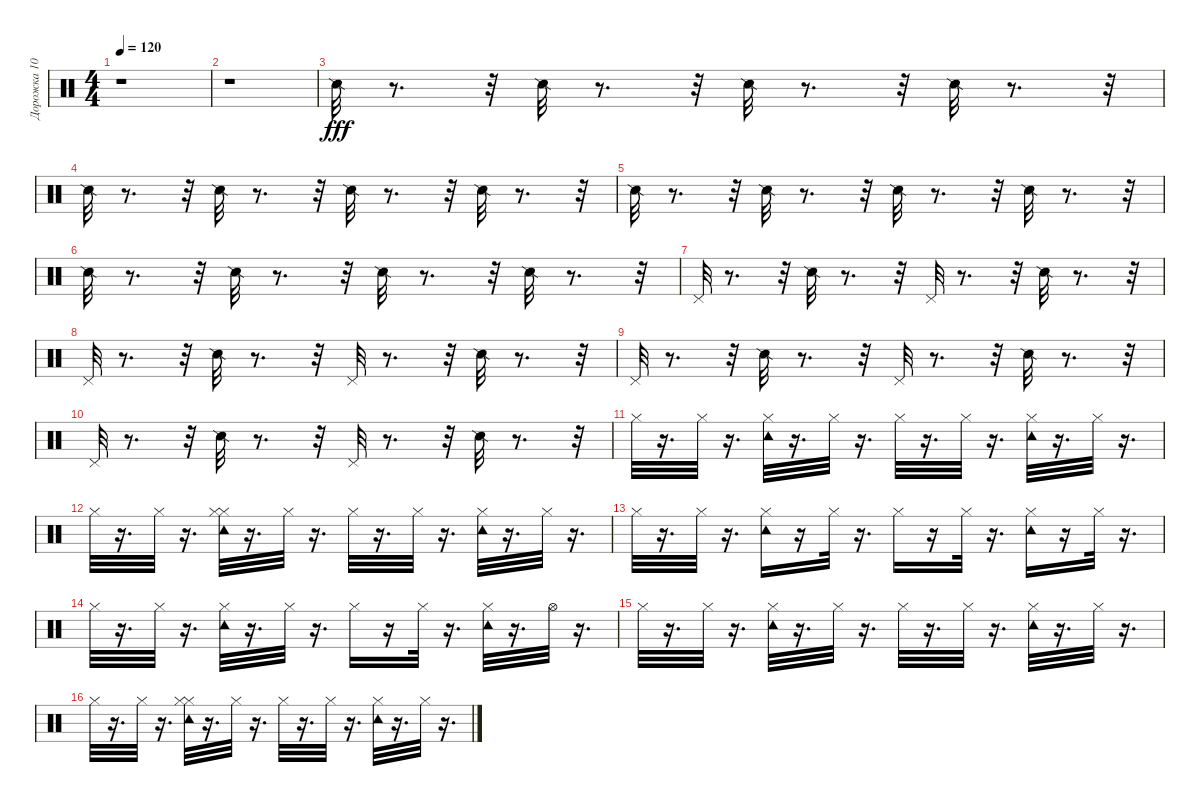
\track ("Дорожка 10" "Дорожка 10") {instrument percussion}
\staff {score}
\articulation defaults
\ts (4 4)
\tempo 120
\clef neutral
\ks c
r.1{dy fff} |
r.1 |
"Snare (side stick) 2".32 r.8{d} r.32 "Snare (side stick) 2".32 r.8{d} r.32 "Snare (side stick) 2".32 r.8{d} r.32 "Snare (side stick) 2".32 r.8{d} r.32 |
"Snare (side stick) 2".32 r.8{d} r.32 "Snare (side stick) 2".32 r.8{d} r.32 "Snare (side stick) 2".32 r.8{d} r.32 "Snare (side stick) 2".32 r.8{d} r.32 |
"Snare (side stick) 2".32 r.8{d} r.32 "Snare (side stick) 2".32 r.8{d} r.32 "Snare (side stick) 2".32 r.8{d} r.32 "Snare (side stick) 2".32 r.8{d} r.32 |
"Snare (side stick) 2".32 r.8{d} r.32 "Snare (side stick) 2".32 r.8{d} r.32 "Snare (side stick) 2".32 r.8{d} r.32 "Snare (side stick) 2".32 r.8{d} r.32 |
"Pedal Hi-Hat (hit)".32 r.8{d} r.32 "Snare (side stick) 2".32 r.8{d} r.32 "Pedal Hi-Hat (hit)".32 r.8{d} r.32 "Snare (side stick) 2".32 r.8{d} r.32 |
"Pedal Hi-Hat (hit)".32 r.8{d} r.32 "Snare (side stick) 2".32 r.8{d} r.32 "Pedal Hi-Hat (hit)".32 r.8{d} r.32 "Snare (side stick) 2".32 r.8{d} r.32 |
"Pedal Hi-Hat (hit)".32 r.8{d} r.32 "Snare (side stick) 2".32 r.8{d} r.32 "Pedal Hi-Hat (hit)".32 r.8{d} r.32 "Snare (side stick) 2".32 r.8{d} r.32 |
"Pedal Hi-Hat (hit)".32 r.8{d} r.32 "Snare (side stick) 2".32 r.8{d} r.32 "Pedal Hi-Hat (hit)".32 r.8{d} r.32 "Snare (side stick) 2".32 r.8{d} r.32 |
"Hi-Hat (closed)".32 r.16{d} "Hi-Hat (closed)".32 r.16{d} ("Tambourine (hit)" "Hi-Hat (closed)").32 r.16{d} "Hi-Hat (closed)".32 r.16{d} "Hi-Hat (closed)".32 r.16{d} "Hi-Hat (closed)".32 r.16{d} ("Tambourine (hit)" "Hi-Hat (closed)").32 r.16{d} "Hi-Hat (closed)".32 r.16{d} |
"Hi-Hat (closed)".32 r.16{d} "Hi-Hat (closed)".32 r.16{d} ("Tambourine (hit)" "Hi-Hat (closed)" "Hi-Hat (closed)").32 r.16{d} "Hi-Hat (closed)".32 r.16{d} "Hi-Hat (closed)".32 r.16{d} "Hi-Hat (closed)".32 r.16{d} ("Hi-Hat (closed)" "Tambourine (hit)").32 r.16{d} "Hi-Hat (closed)".32 r.16{d} |
"Hi-Hat (closed)".32 r.16{d} "Hi-Hat (closed)".32 r.16{d} ("Tambourine (hit)" "Hi-Hat (closed)").16 r.16 "Hi-Hat (closed)".32 r.16{d} "Hi-Hat (closed)".16 r.16 "Hi-Hat (closed)".32 r.16{d} ("Hi-Hat (closed)" "Tambourine (hit)").16 r.16 "Hi-Hat (closed)".32 r.16{d} |
"Hi-Hat (closed)".32 r.16{d} "Hi-Hat (closed)".32 r.16{d} ("Tambourine (hit)" "Hi-Hat (closed)").32 r.16{d} "Hi-Hat (closed)".32 r.16{d} "Hi-Hat (closed)".16 r.16 "Hi-Hat (closed)".32 r.16{d} ("Tambourine (hit)" "Hi-Hat (closed)").32 r.16{d} "Hi-Hat (open)".32 r.16{d} |
"Hi-Hat (closed)".32 r.16{d} "Hi-Hat (closed)".32 r.16{d} ("Tambourine (hit)" "Hi-Hat (closed)").32 r.16{d} "Hi-Hat (closed)".32 r.16{d} "Hi-Hat (closed)".32 r.16{d} "Hi-Hat (closed)".32 r.16{d} ("Tambourine (hit)" "Hi-Hat (closed)").32 r.16{d} "Hi-Hat (closed)".32 r.16{d} |
"Hi-Hat (closed)".32 r.16{d} "Hi-Hat (closed)".32 r.16{d} ("Tambourine (hit)" "Hi-Hat (closed)" "Hi-Hat (closed)").32 r.16{d} "Hi-Hat (closed)".32 r.16{d} "Hi-Hat (closed)".32 r.16{d} "Hi-Hat (closed)".32 r.16{d} ("Hi-Hat (closed)" "Tambourine (hit)").32 r.16{d} "Hi-Hat (closed)".32 r.16{d}
